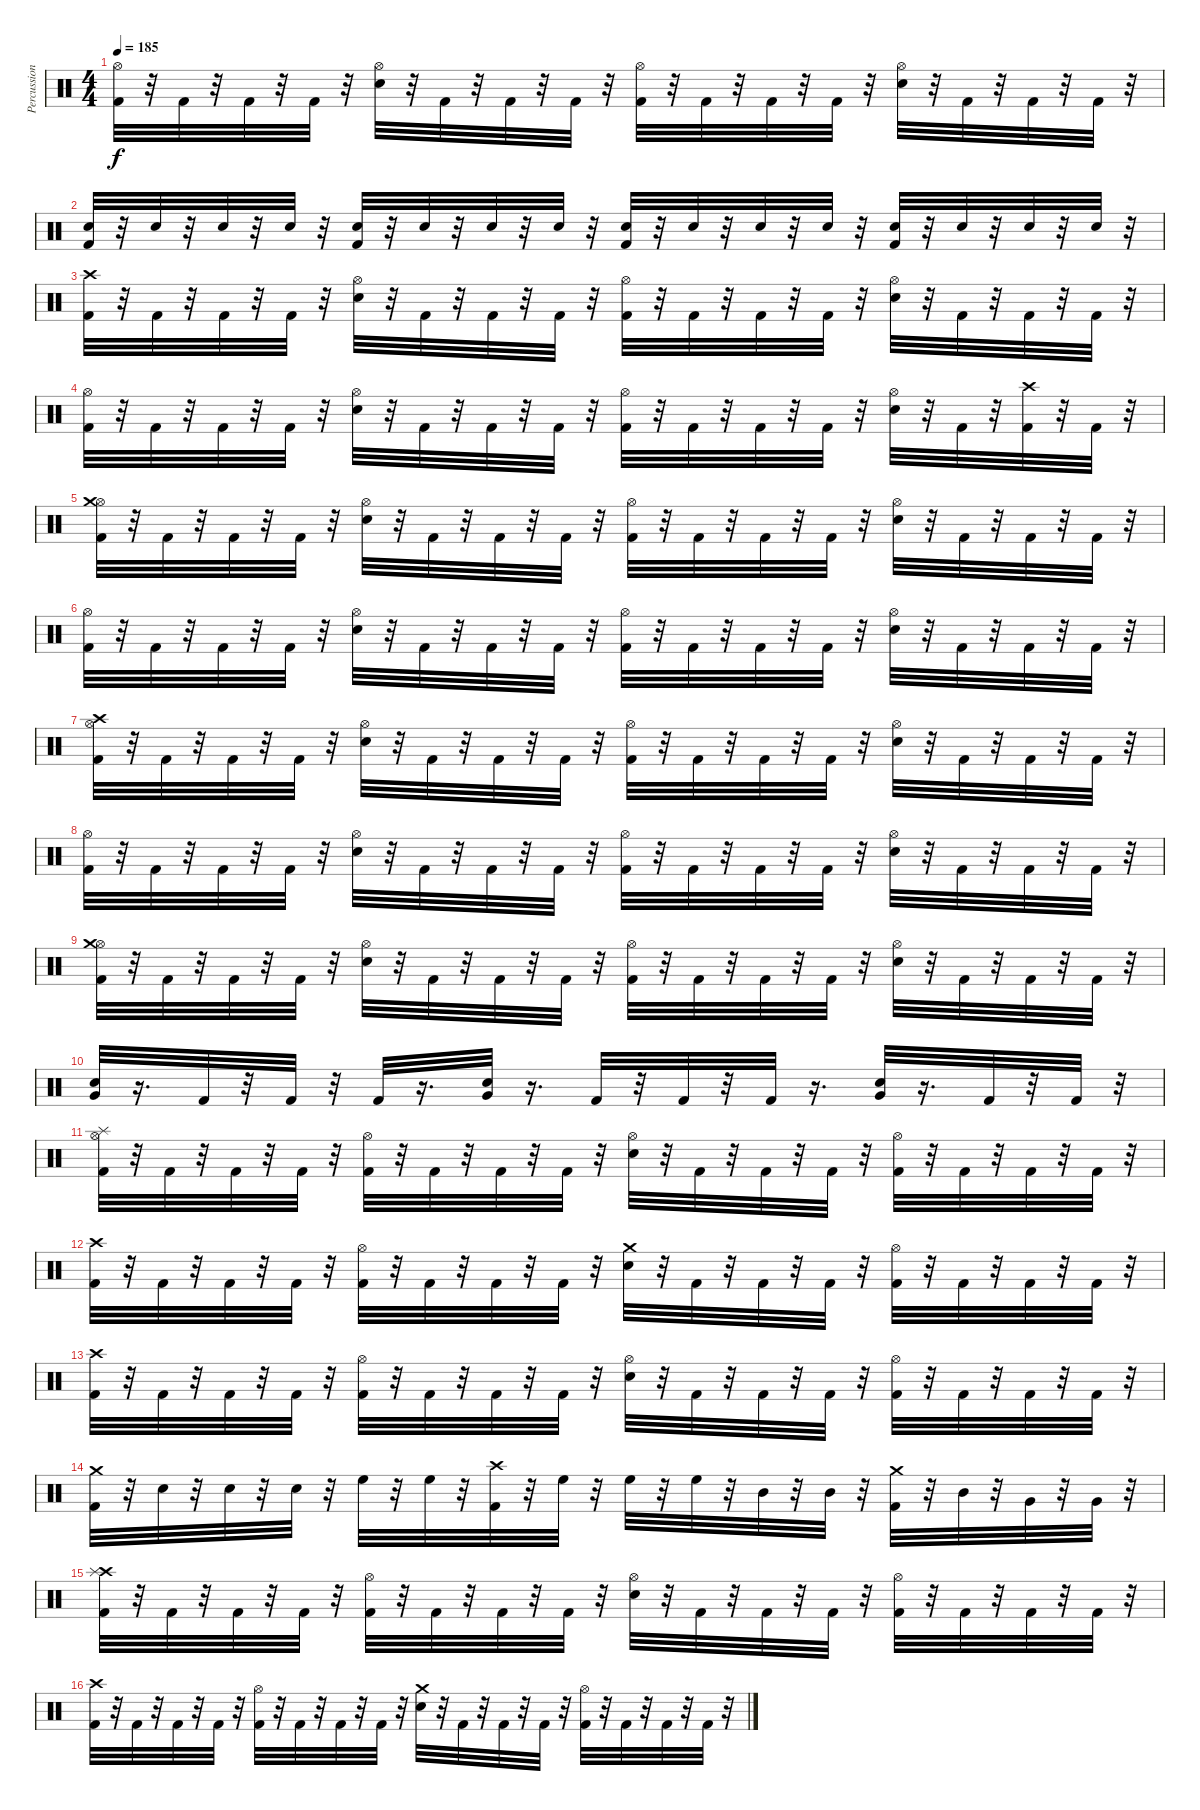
\track ("Percussion" "Percussion") {instrument percussion}
\staff {score}
\articulation defaults
\ts (4 4)
\tempo 185
\clef neutral
\ks c
("Kick (hit) 2" "Hi-Hat (open)").32{dy f} r.32 "Kick (hit) 2".32 r.32 "Kick (hit) 2".32 r.32 "Kick (hit) 2".32 r.32 ("Snare (hit) 2" "Hi-Hat (open)").32 r.32 "Kick (hit) 2".32 r.32 "Kick (hit) 2".32 r.32 "Kick (hit) 2".32 r.32 ("Kick (hit) 2" "Hi-Hat (open)").32 r.32 "Kick (hit) 2".32 r.32 "Kick (hit) 2".32 r.32 "Kick (hit) 2".32 r.32 ("Snare (hit) 2" "Hi-Hat (open)").32 r.32 "Kick (hit) 2".32 r.32 "Kick (hit) 2".32 r.32 "Kick (hit) 2".32 r.32 |
("Kick (hit) 2" "Snare (hit) 2").32 r.32 "Snare (hit) 2".32 r.32 "Snare (hit) 2".32 r.32 "Snare (hit) 2".32 r.32 ("Kick (hit) 2" "Snare (hit) 2").32 r.32 "Snare (hit) 2".32 r.32 "Snare (hit) 2".32 r.32 "Snare (hit) 2".32 r.32 ("Kick (hit) 2" "Snare (hit) 2").32 r.32 "Snare (hit) 2".32 r.32 "Snare (hit) 2".32 r.32 "Snare (hit) 2".32 r.32 ("Kick (hit) 2" "Snare (hit) 2").32 r.32 "Snare (hit) 2".32 r.32 "Snare (hit) 2".32 r.32 "Snare (hit) 2".32 r.32 |
("Kick (hit) 2" "Crash high (hit)").32 r.32 "Kick (hit) 2".32 r.32 "Kick (hit) 2".32 r.32 "Kick (hit) 2".32 r.32 ("Snare (hit) 2" "Hi-Hat (open)").32 r.32 "Kick (hit) 2".32 r.32 "Kick (hit) 2".32 r.32 "Kick (hit) 2".32 r.32 ("Kick (hit) 2" "Hi-Hat (open)").32 r.32 "Kick (hit) 2".32 r.32 "Kick (hit) 2".32 r.32 "Kick (hit) 2".32 r.32 ("Snare (hit) 2" "Hi-Hat (open)").32 r.32 "Kick (hit) 2".32 r.32 "Kick (hit) 2".32 r.32 "Kick (hit) 2".32 r.32 |
("Kick (hit) 2" "Hi-Hat (open)").32 r.32 "Kick (hit) 2".32 r.32 "Kick (hit) 2".32 r.32 "Kick (hit) 2".32 r.32 ("Snare (hit) 2" "Hi-Hat (open)").32 r.32 "Kick (hit) 2".32 r.32 "Kick (hit) 2".32 r.32 "Kick (hit) 2".32 r.32 ("Kick (hit) 2" "Hi-Hat (open)").32 r.32 "Kick (hit) 2".32 r.32 "Kick (hit) 2".32 r.32 "Kick (hit) 2".32 r.32 ("Snare (hit) 2" "Hi-Hat (open)").32 r.32 "Kick (hit) 2".32 r.32 ("Kick (hit) 2" "Crash high (hit)").32 r.32 "Kick (hit) 2".32 r.32 |
("Kick (hit) 2" "Hi-Hat (open)" "Crash medium (hit)").32 r.32 "Kick (hit) 2".32 r.32 "Kick (hit) 2".32 r.32 "Kick (hit) 2".32 r.32 ("Snare (hit) 2" "Hi-Hat (open)").32 r.32 "Kick (hit) 2".32 r.32 "Kick (hit) 2".32 r.32 "Kick (hit) 2".32 r.32 ("Kick (hit) 2" "Hi-Hat (open)").32 r.32 "Kick (hit) 2".32 r.32 "Kick (hit) 2".32 r.32 "Kick (hit) 2".32 r.32 ("Snare (hit) 2" "Hi-Hat (open)").32 r.32 "Kick (hit) 2".32 r.32 "Kick (hit) 2".32 r.32 "Kick (hit) 2".32 r.32 |
("Kick (hit) 2" "Hi-Hat (open)").32 r.32 "Kick (hit) 2".32 r.32 "Kick (hit) 2".32 r.32 "Kick (hit) 2".32 r.32 ("Snare (hit) 2" "Hi-Hat (open)").32 r.32 "Kick (hit) 2".32 r.32 "Kick (hit) 2".32 r.32 "Kick (hit) 2".32 r.32 ("Kick (hit) 2" "Hi-Hat (open)").32 r.32 "Kick (hit) 2".32 r.32 "Kick (hit) 2".32 r.32 "Kick (hit) 2".32 r.32 ("Snare (hit) 2" "Hi-Hat (open)").32 r.32 "Kick (hit) 2".32 r.32 "Kick (hit) 2".32 r.32 "Kick (hit) 2".32 r.32 |
("Kick (hit) 2" "Hi-Hat (open)" "Crash high (hit)").32 r.32 "Kick (hit) 2".32 r.32 "Kick (hit) 2".32 r.32 "Kick (hit) 2".32 r.32 ("Snare (hit) 2" "Hi-Hat (open)").32 r.32 "Kick (hit) 2".32 r.32 "Kick (hit) 2".32 r.32 "Kick (hit) 2".32 r.32 ("Kick (hit) 2" "Hi-Hat (open)").32 r.32 "Kick (hit) 2".32 r.32 "Kick (hit) 2".32 r.32 "Kick (hit) 2".32 r.32 ("Snare (hit) 2" "Hi-Hat (open)").32 r.32 "Kick (hit) 2".32 r.32 "Kick (hit) 2".32 r.32 "Kick (hit) 2".32 r.32 |
("Kick (hit) 2" "Hi-Hat (open)").32 r.32 "Kick (hit) 2".32 r.32 "Kick (hit) 2".32 r.32 "Kick (hit) 2".32 r.32 ("Snare (hit) 2" "Hi-Hat (open)").32 r.32 "Kick (hit) 2".32 r.32 "Kick (hit) 2".32 r.32 "Kick (hit) 2".32 r.32 ("Kick (hit) 2" "Hi-Hat (open)").32 r.32 "Kick (hit) 2".32 r.32 "Kick (hit) 2".32 r.32 "Kick (hit) 2".32 r.32 ("Snare (hit) 2" "Hi-Hat (open)").32 r.32 "Kick (hit) 2".32 r.32 "Kick (hit) 2".32 r.32 "Kick (hit) 2".32 r.32 |
("Kick (hit) 2" "Hi-Hat (open)" "Crash medium (hit)").32 r.32 "Kick (hit) 2".32 r.32 "Kick (hit) 2".32 r.32 "Kick (hit) 2".32 r.32 ("Snare (hit) 2" "Hi-Hat (open)").32 r.32 "Kick (hit) 2".32 r.32 "Kick (hit) 2".32 r.32 "Kick (hit) 2".32 r.32 ("Kick (hit) 2" "Hi-Hat (open)").32 r.32 "Kick (hit) 2".32 r.32 "Kick (hit) 2".32 r.32 "Kick (hit) 2".32 r.32 ("Snare (hit) 2" "Hi-Hat (open)").32 r.32 "Kick (hit) 2".32 r.32 "Kick (hit) 2".32 r.32 "Kick (hit) 2".32 r.32 |
("Snare (hit) 2" "Very Low Tom (hit)").32 r.16{d} "Kick (hit) 2".32 r.32 "Kick (hit) 2".32 r.32 "Kick (hit) 2".32 r.16{d} ("Snare (hit) 2" "Very Low Tom (hit)").32 r.16{d} "Kick (hit) 2".32 r.32 "Kick (hit) 2".32 r.32 "Kick (hit) 2".32 r.16{d} ("Snare (hit) 2" "Very Low Tom (hit)").32 r.16{d} "Kick (hit) 2".32 r.32 "Kick (hit) 2".32 r.32 |
("Kick (hit) 2" "Hi-Hat (open)" "Splash (hit)").32 r.32 "Kick (hit) 2".32 r.32 "Kick (hit) 2".32 r.32 "Kick (hit) 2".32 r.32 ("Kick (hit) 2" "Hi-Hat (open)").32 r.32 "Kick (hit) 2".32 r.32 "Kick (hit) 2".32 r.32 "Kick (hit) 2".32 r.32 ("Snare (hit) 2" "Hi-Hat (open)").32 r.32 "Kick (hit) 2".32 r.32 "Kick (hit) 2".32 r.32 "Kick (hit) 2".32 r.32 ("Kick (hit) 2" "Hi-Hat (open)").32 r.32 "Kick (hit) 2".32 r.32 "Kick (hit) 2".32 r.32 "Kick (hit) 2".32 r.32 |
("Kick (hit) 2" "Crash high (hit)").32 r.32 "Kick (hit) 2".32 r.32 "Kick (hit) 2".32 r.32 "Kick (hit) 2".32 r.32 ("Kick (hit) 2" "Hi-Hat (open)").32 r.32 "Kick (hit) 2".32 r.32 "Kick (hit) 2".32 r.32 "Kick (hit) 2".32 r.32 ("Snare (hit) 2" "Crash medium (hit)").32 r.32 "Kick (hit) 2".32 r.32 "Kick (hit) 2".32 r.32 "Kick (hit) 2".32 r.32 ("Kick (hit) 2" "Hi-Hat (open)").32 r.32 "Kick (hit) 2".32 r.32 "Kick (hit) 2".32 r.32 "Kick (hit) 2".32 r.32 |
("Kick (hit) 2" "Crash high (hit)").32 r.32 "Kick (hit) 2".32 r.32 "Kick (hit) 2".32 r.32 "Kick (hit) 2".32 r.32 ("Kick (hit) 2" "Hi-Hat (open)").32 r.32 "Kick (hit) 2".32 r.32 "Kick (hit) 2".32 r.32 "Kick (hit) 2".32 r.32 ("Snare (hit) 2" "Hi-Hat (open)").32 r.32 "Kick (hit) 2".32 r.32 "Kick (hit) 2".32 r.32 "Kick (hit) 2".32 r.32 ("Kick (hit) 2" "Hi-Hat (open)").32 r.32 "Kick (hit) 2".32 r.32 "Kick (hit) 2".32 r.32 "Kick (hit) 2".32 r.32 |
("Kick (hit) 2" "Crash medium (hit)").32 r.32 "Snare (hit) 2".32 r.32 "Snare (hit) 2".32 r.32 "Snare (hit) 2".32 r.32 "High Floor Tom (hit)".32 r.32 "High Floor Tom (hit)".32 r.32 ("Kick (hit) 2" "Crash high (hit)").32 r.32 "High Floor Tom (hit)".32 r.32 "High Floor Tom (hit)".32 r.32 "High Floor Tom (hit)".32 r.32 "Mid Tom (hit)".32 r.32 "Mid Tom (hit)".32 r.32 ("Kick (hit) 2" "Crash medium (hit)").32 r.32 "Mid Tom (hit)".32 r.32 "Very Low Tom (hit)".32 r.32 "Very Low Tom (hit)".32 r.32 |
("Kick (hit) 2" "Crash high (hit)" "Splash (hit)").32 r.32 "Kick (hit) 2".32 r.32 "Kick (hit) 2".32 r.32 "Kick (hit) 2".32 r.32 ("Kick (hit) 2" "Hi-Hat (open)").32 r.32 "Kick (hit) 2".32 r.32 "Kick (hit) 2".32 r.32 "Kick (hit) 2".32 r.32 ("Snare (hit) 2" "Hi-Hat (open)").32 r.32 "Kick (hit) 2".32 r.32 "Kick (hit) 2".32 r.32 "Kick (hit) 2".32 r.32 ("Kick (hit) 2" "Hi-Hat (open)").32 r.32 "Kick (hit) 2".32 r.32 "Kick (hit) 2".32 r.32 "Kick (hit) 2".32 r.32 |
("Kick (hit) 2" "Crash high (hit)").32 r.32 "Kick (hit) 2".32 r.32 "Kick (hit) 2".32 r.32 "Kick (hit) 2".32 r.32 ("Kick (hit) 2" "Hi-Hat (open)").32 r.32 "Kick (hit) 2".32 r.32 "Kick (hit) 2".32 r.32 "Kick (hit) 2".32 r.32 ("Snare (hit) 2" "Crash medium (hit)").32 r.32 "Kick (hit) 2".32 r.32 "Kick (hit) 2".32 r.32 "Kick (hit) 2".32 r.32 ("Kick (hit) 2" "Hi-Hat (open)").32 r.32 "Kick (hit) 2".32 r.32 "Kick (hit) 2".32 r.32 "Kick (hit) 2".32 r.32
